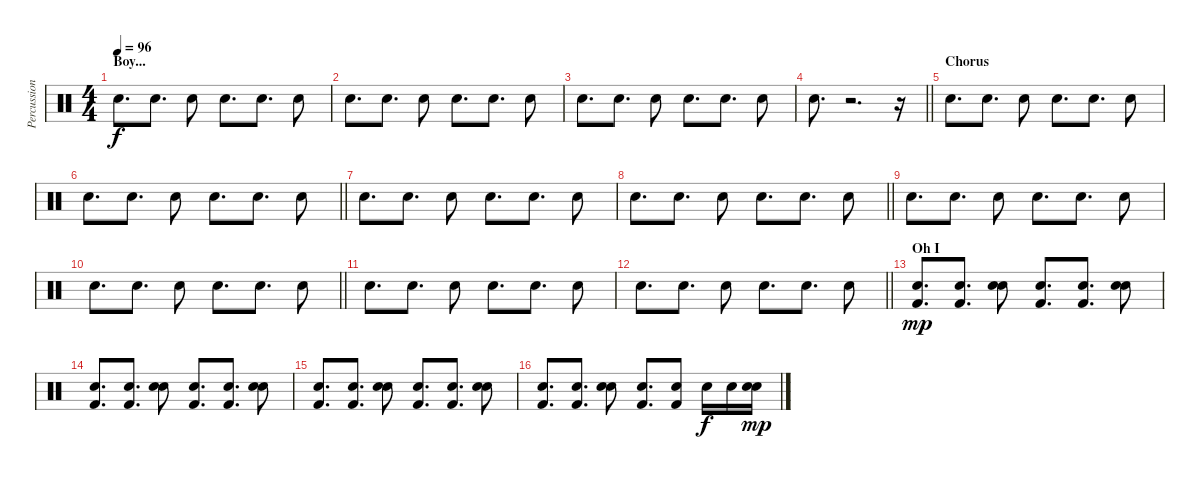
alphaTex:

\track ("Percussion" "Percussion") {instrument percussion bank 2}
\staff {score}
\articulation defaults
\ts (4 4)
\section ("" "Boy...")
\tempo 96
\clef neutral
\ks c "Hand Clap (hit)".8{d dy f} "Hand Clap (hit)".8{d} "Hand Clap (hit)".8 "Hand Clap (hit)".8{d} "Hand Clap (hit)".8{d} "Hand Clap (hit)".8
|
"Hand Clap (hit)".8{d} "Hand Clap (hit)".8{d} "Hand Clap (hit)".8 "Hand Clap (hit)".8{d} "Hand Clap (hit)".8{d} "Hand Clap (hit)".8 |
"Hand Clap (hit)".8{d} "Hand Clap (hit)".8{d} "Hand Clap (hit)".8 "Hand Clap (hit)".8{d} "Hand Clap (hit)".8{d} "Hand Clap (hit)".8 |
\barLineRight lightlight "Hand Clap (hit)".8{d}
r.2{d} r.16 |
\section ("" "Chorus")
"Hand Clap (hit)".8{d} "Hand Clap (hit)".8{d} "Hand Clap (hit)".8 "Hand Clap (hit)".8{d} "Hand Clap (hit)".8{d} "Hand Clap (hit)".8 |
\barLineRight lightlight "Hand Clap (hit)".8{d} "Hand Clap (hit)".8{d} "Hand Clap (hit)".8 "Hand Clap (hit)".8{d} "Hand Clap (hit)".8{d} "Hand Clap (hit)".8
|
"Hand Clap (hit)".8{d} "Hand Clap (hit)".8{d} "Hand Clap (hit)".8 "Hand Clap (hit)".8{d} "Hand Clap (hit)".8{d} "Hand Clap (hit)".8 |
\barLineRight lightlight "Hand Clap (hit)".8{d} "Hand Clap (hit)".8{d} "Hand Clap (hit)".8 "Hand Clap (hit)".8{d} "Hand Clap (hit)".8{d} "Hand Clap (hit)".8
|
"Hand Clap (hit)".8{d} "Hand Clap (hit)".8{d} "Hand Clap (hit)".8 "Hand Clap (hit)".8{d} "Hand Clap (hit)".8{d} "Hand Clap (hit)".8 |
\barLineRight lightlight "Hand Clap (hit)".8{d} "Hand Clap (hit)".8{d} "Hand Clap (hit)".8 "Hand Clap (hit)".8{d} "Hand Clap (hit)".8{d} "Hand Clap (hit)".8
|
"Hand Clap (hit)".8{d} "Hand Clap (hit)".8{d} "Hand Clap (hit)".8 "Hand Clap (hit)".8{d} "Hand Clap (hit)".8{d} "Hand Clap (hit)".8 |
\barLineRight lightlight "Hand Clap (hit)".8{d} "Hand Clap (hit)".8{d} "Hand Clap (hit)".8 "Hand Clap (hit)".8{d} "Hand Clap (hit)".8{d} "Hand Clap (hit)".8
|
\section ("" "Oh I")
("Hand Clap (hit)" "Kick (hit) 2").8{d dy mp} ("Hand Clap (hit)" "Kick (hit) 2").8{d} ("Hand Clap (hit)" "Snare (hit) 2").8 ("Hand Clap (hit)" "Kick (hit) 2").8{d} ("Hand Clap (hit)" "Kick (hit) 2").8{d} ("Hand Clap (hit)" "Snare (hit) 2").8 |
("Hand Clap (hit)" "Kick (hit) 2").8{d} ("Hand Clap (hit)" "Kick (hit) 2").8{d} ("Hand Clap (hit)" "Snare (hit) 2").8 ("Hand Clap (hit)" "Kick (hit) 2").8{d} ("Hand Clap (hit)" "Kick (hit) 2").8{d} ("Hand Clap (hit)" "Snare (hit) 2").8 |
("Hand Clap (hit)" "Kick (hit) 2").8{d} ("Hand Clap (hit)" "Kick (hit) 2").8{d} ("Hand Clap (hit)" "Snare (hit) 2").8 ("Hand Clap (hit)" "Kick (hit) 2").8{d} ("Hand Clap (hit)" "Kick (hit) 2").8{d} ("Hand Clap (hit)" "Snare (hit) 2").8 |
("Hand Clap (hit)" "Kick (hit) 2").8{d} ("Hand Clap (hit)" "Kick (hit) 2").8{d} ("Hand Clap (hit)" "Snare (hit) 2").8 ("Hand Clap (hit)" "Kick (hit) 2").8{d} ("Hand Clap (hit)" "Kick (hit) 2").8 "Snare (hit) 2".16{dy f} "Snare (hit) 2".16 ("Hand Clap (hit)" "Snare (hit) 2").16{dy mp}
